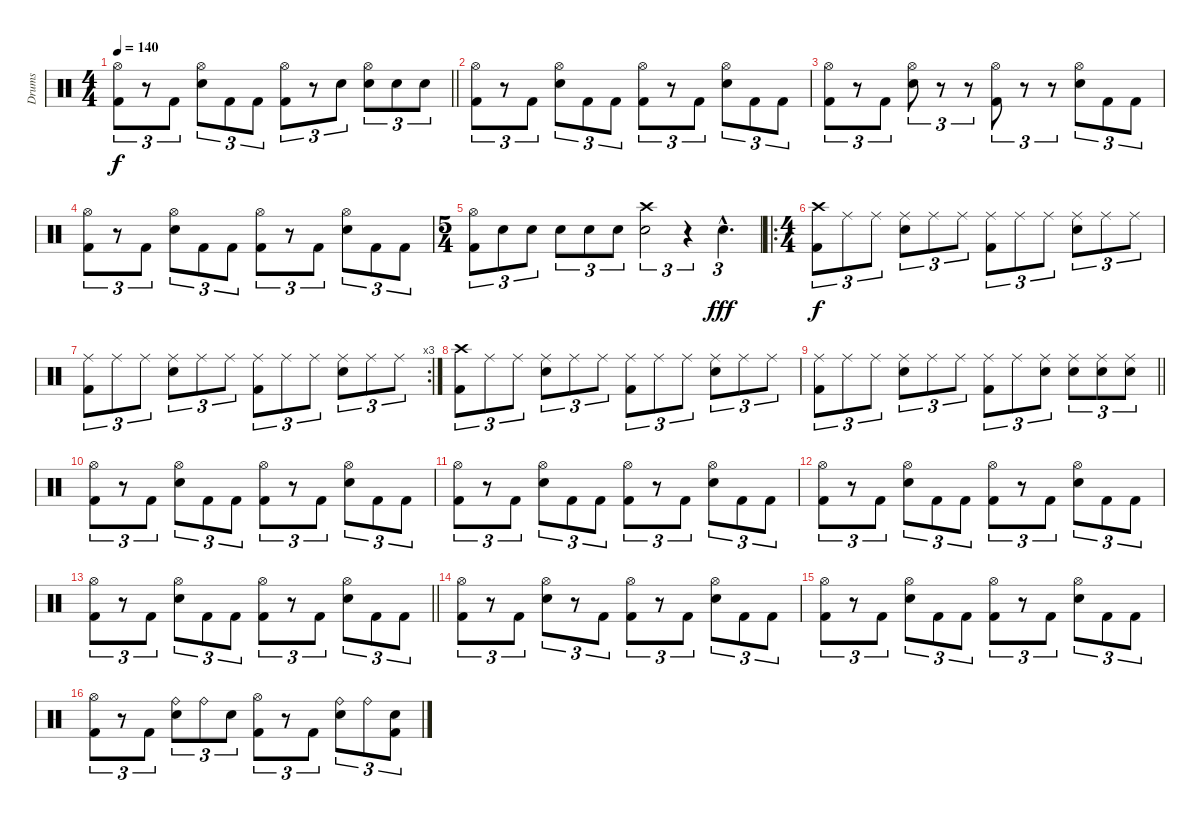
\track ("Drums" "Drums") {instrument percussion}
\staff {score}
\articulation defaults
\ts (4 4)
\tempo 140
\clef neutral
\barLineRight lightlight
\ks c
("Hi-Hat (open)" "Kick (hit) 2").8{tu (3 2) dy f} r.8{tu (3 2)} "Kick (hit) 2".8{tu (3 2)} ("Hi-Hat (open)" "Snare (hit) 2").8{tu (3 2)} "Kick (hit) 2".8{tu (3 2)} "Kick (hit) 2".8{tu (3 2)} ("Hi-Hat (open)" "Kick (hit) 2").8{tu (3 2)} r.8{tu (3 2)} "Snare (hit) 2".8{tu (3 2)} ("Hi-Hat (open)" "Snare (hit) 2").8{tu (3 2)} "Snare (hit) 2".8{tu (3 2)} "Snare (hit) 2".8{tu (3 2)} |
("Hi-Hat (open)" "Kick (hit) 2").8{tu (3 2)} r.8{tu (3 2)} "Kick (hit) 2".8{tu (3 2)} ("Hi-Hat (open)" "Snare (hit) 2").8{tu (3 2)} "Kick (hit) 2".8{tu (3 2)} "Kick (hit) 2".8{tu (3 2)} ("Hi-Hat (open)" "Kick (hit) 2").8{tu (3 2)} r.8{tu (3 2)} "Kick (hit) 2".8{tu (3 2)} ("Hi-Hat (open)" "Snare (hit) 2").8{tu (3 2)} "Kick (hit) 2".8{tu (3 2)} "Kick (hit) 2".8{tu (3 2)} |
("Hi-Hat (open)" "Kick (hit) 2").8{tu (3 2)} r.8{tu (3 2)} "Kick (hit) 2".8{tu (3 2)} ("Hi-Hat (open)" "Snare (hit) 2").8{tu (3 2)} r.8{tu (3 2)} r.8{tu (3 2)} ("Hi-Hat (open)" "Kick (hit) 2").8{tu (3 2)} r.8{tu (3 2)} r.8{tu (3 2)} ("Hi-Hat (open)" "Snare (hit) 2").8{tu (3 2)} "Kick (hit) 2".8{tu (3 2)} "Kick (hit) 2".8{tu (3 2)} |
("Hi-Hat (open)" "Kick (hit) 2").8{tu (3 2)} r.8{tu (3 2)} "Kick (hit) 2".8{tu (3 2)} ("Hi-Hat (open)" "Snare (hit) 2").8{tu (3 2)} "Kick (hit) 2".8{tu (3 2)} "Kick (hit) 2".8{tu (3 2)} ("Hi-Hat (open)" "Kick (hit) 2").8{tu (3 2)} r.8{tu (3 2)} "Kick (hit) 2".8{tu (3 2)} ("Hi-Hat (open)" "Snare (hit) 2").8{tu (3 2)} "Kick (hit) 2".8{tu (3 2)} "Kick (hit) 2".8{tu (3 2)} |
\ts (5 4)
("Hi-Hat (open)" "Kick (hit) 2").8{tu (3 2)} "Snare (hit) 2".8{tu (3 2)} "Snare (hit) 2".8{tu (3 2)} "Snare (hit) 2".8{tu (3 2)} "Snare (hit) 2".8{tu (3 2)} "Snare (hit) 2".8{tu (3 2)} ("Crash high (hit)" "Snare (hit) 2").2{tu (3 2)} r.4{tu (3 2)} "Snare (hit) 2"{hac}.4{d tu (3 2) dy fff} |
\ro
\ts (4 4)
("Crash high (hit)" "Kick (hit) 2").8{tu (3 2) dy f} "Ride (middle)".8{tu (3 2)} "Ride (middle)".8{tu (3 2)} ("Ride (middle)" "Snare (hit) 2").8{tu (3 2)} "Ride (middle)".8{tu (3 2)} "Ride (middle)".8{tu (3 2)} ("Ride (middle)" "Kick (hit) 2").8{tu (3 2)} "Ride (middle)".8{tu (3 2)} "Ride (middle)".8{tu (3 2)} ("Ride (middle)" "Snare (hit) 2").8{tu (3 2)} "Ride (middle)".8{tu (3 2)} "Ride (middle)".8{tu (3 2)} |
\rc 3
("Ride (middle)" "Kick (hit) 2").8{tu (3 2)} "Ride (middle)".8{tu (3 2)} "Ride (middle)".8{tu (3 2)} ("Ride (middle)" "Snare (hit) 2").8{tu (3 2)} "Ride (middle)".8{tu (3 2)} "Ride (middle)".8{tu (3 2)} ("Ride (middle)" "Kick (hit) 2").8{tu (3 2)} "Ride (middle)".8{tu (3 2)} "Ride (middle)".8{tu (3 2)} ("Ride (middle)" "Snare (hit) 2").8{tu (3 2)} "Ride (middle)".8{tu (3 2)} "Ride (middle)".8{tu (3 2)} |
("Crash high (hit)" "Kick (hit) 2").8{tu (3 2)} "Ride (middle)".8{tu (3 2)} "Ride (middle)".8{tu (3 2)} ("Ride (middle)" "Snare (hit) 2").8{tu (3 2)} "Ride (middle)".8{tu (3 2)} "Ride (middle)".8{tu (3 2)} ("Ride (middle)" "Kick (hit) 2").8{tu (3 2)} "Ride (middle)".8{tu (3 2)} "Ride (middle)".8{tu (3 2)} ("Ride (middle)" "Snare (hit) 2").8{tu (3 2)} "Ride (middle)".8{tu (3 2)} "Ride (middle)".8{tu (3 2)} |
\barLineRight lightlight
("Ride (middle)" "Kick (hit) 2").8{tu (3 2)} "Ride (middle)".8{tu (3 2)} "Ride (middle)".8{tu (3 2)} ("Ride (middle)" "Snare (hit) 2").8{tu (3 2)} "Ride (middle)".8{tu (3 2)} "Ride (middle)".8{tu (3 2)} ("Ride (middle)" "Kick (hit) 2").8{tu (3 2)} "Ride (middle)".8{tu (3 2)} ("Ride (middle)" "Snare (hit) 2").8{tu (3 2)} ("Ride (middle)" "Snare (hit) 2").8{tu (3 2)} ("Ride (middle)" "Snare (hit) 2").8{tu (3 2)} ("Ride (middle)" "Snare (hit) 2").8{tu (3 2)} |
("Hi-Hat (open)" "Kick (hit) 2").8{tu (3 2)} r.8{tu (3 2)} "Kick (hit) 2".8{tu (3 2)} ("Hi-Hat (open)" "Snare (hit) 2").8{tu (3 2)} "Kick (hit) 2".8{tu (3 2)} "Kick (hit) 2".8{tu (3 2)} ("Hi-Hat (open)" "Kick (hit) 2").8{tu (3 2)} r.8{tu (3 2)} "Kick (hit) 2".8{tu (3 2)} ("Hi-Hat (open)" "Snare (hit) 2").8{tu (3 2)} "Kick (hit) 2".8{tu (3 2)} "Kick (hit) 2".8{tu (3 2)} |
("Hi-Hat (open)" "Kick (hit) 2").8{tu (3 2)} r.8{tu (3 2)} "Kick (hit) 2".8{tu (3 2)} ("Hi-Hat (open)" "Snare (hit) 2").8{tu (3 2)} "Kick (hit) 2".8{tu (3 2)} "Kick (hit) 2".8{tu (3 2)} ("Hi-Hat (open)" "Kick (hit) 2").8{tu (3 2)} r.8{tu (3 2)} "Kick (hit) 2".8{tu (3 2)} ("Hi-Hat (open)" "Snare (hit) 2").8{tu (3 2)} "Kick (hit) 2".8{tu (3 2)} "Kick (hit) 2".8{tu (3 2)} |
("Hi-Hat (open)" "Kick (hit) 2").8{tu (3 2)} r.8{tu (3 2)} "Kick (hit) 2".8{tu (3 2)} ("Hi-Hat (open)" "Snare (hit) 2").8{tu (3 2)} "Kick (hit) 2".8{tu (3 2)} "Kick (hit) 2".8{tu (3 2)} ("Hi-Hat (open)" "Kick (hit) 2").8{tu (3 2)} r.8{tu (3 2)} "Kick (hit) 2".8{tu (3 2)} ("Hi-Hat (open)" "Snare (hit) 2").8{tu (3 2)} "Kick (hit) 2".8{tu (3 2)} "Kick (hit) 2".8{tu (3 2)} |
\barLineRight lightlight
("Hi-Hat (open)" "Kick (hit) 2").8{tu (3 2)} r.8{tu (3 2)} "Kick (hit) 2".8{tu (3 2)} ("Hi-Hat (open)" "Snare (hit) 2").8{tu (3 2)} "Kick (hit) 2".8{tu (3 2)} "Kick (hit) 2".8{tu (3 2)} ("Hi-Hat (open)" "Kick (hit) 2").8{tu (3 2)} r.8{tu (3 2)} "Kick (hit) 2".8{tu (3 2)} ("Hi-Hat (open)" "Snare (hit) 2").8{tu (3 2)} "Kick (hit) 2".8{tu (3 2)} "Kick (hit) 2".8{tu (3 2)} |
("Hi-Hat (open)" "Kick (hit) 2").8{tu (3 2)} r.8{tu (3 2)} "Kick (hit) 2".8{tu (3 2)} ("Hi-Hat (open)" "Snare (hit) 2").8{tu (3 2)} r.8{tu (3 2)} "Kick (hit) 2".8{tu (3 2)} ("Hi-Hat (open)" "Kick (hit) 2").8{tu (3 2)} r.8{tu (3 2)} "Kick (hit) 2".8{tu (3 2)} ("Hi-Hat (open)" "Snare (hit) 2").8{tu (3 2)} "Kick (hit) 2".8{tu (3 2)} "Kick (hit) 2".8{tu (3 2)} |
("Hi-Hat (open)" "Kick (hit) 2").8{tu (3 2)} r.8{tu (3 2)} "Kick (hit) 2".8{tu (3 2)} ("Hi-Hat (open)" "Snare (hit) 2").8{tu (3 2)} "Kick (hit) 2".8{tu (3 2)} "Kick (hit) 2".8{tu (3 2)} ("Hi-Hat (open)" "Kick (hit) 2").8{tu (3 2)} r.8{tu (3 2)} "Kick (hit) 2".8{tu (3 2)} ("Hi-Hat (open)" "Snare (hit) 2").8{tu (3 2)} "Kick (hit) 2".8{tu (3 2)} "Kick (hit) 2".8{tu (3 2)} |
("Hi-Hat (open)" "Kick (hit) 2").8{tu (3 2)} r.8{tu (3 2)} "Kick (hit) 2".8{tu (3 2)} ("Ride (bell)" "Snare (hit) 2").8{tu (3 2)} "Ride (bell)".8{tu (3 2)} "Snare (hit) 2".8{tu (3 2)} ("Hi-Hat (open)" "Kick (hit) 2").8{tu (3 2)} r.8{tu (3 2)} "Kick (hit) 2".8{tu (3 2)} ("Ride (bell)" "Snare (hit) 2").8{tu (3 2)} "Ride (bell)".8{tu (3 2)} ("Snare (hit) 2" "Kick (hit) 2").8{tu (3 2)}
